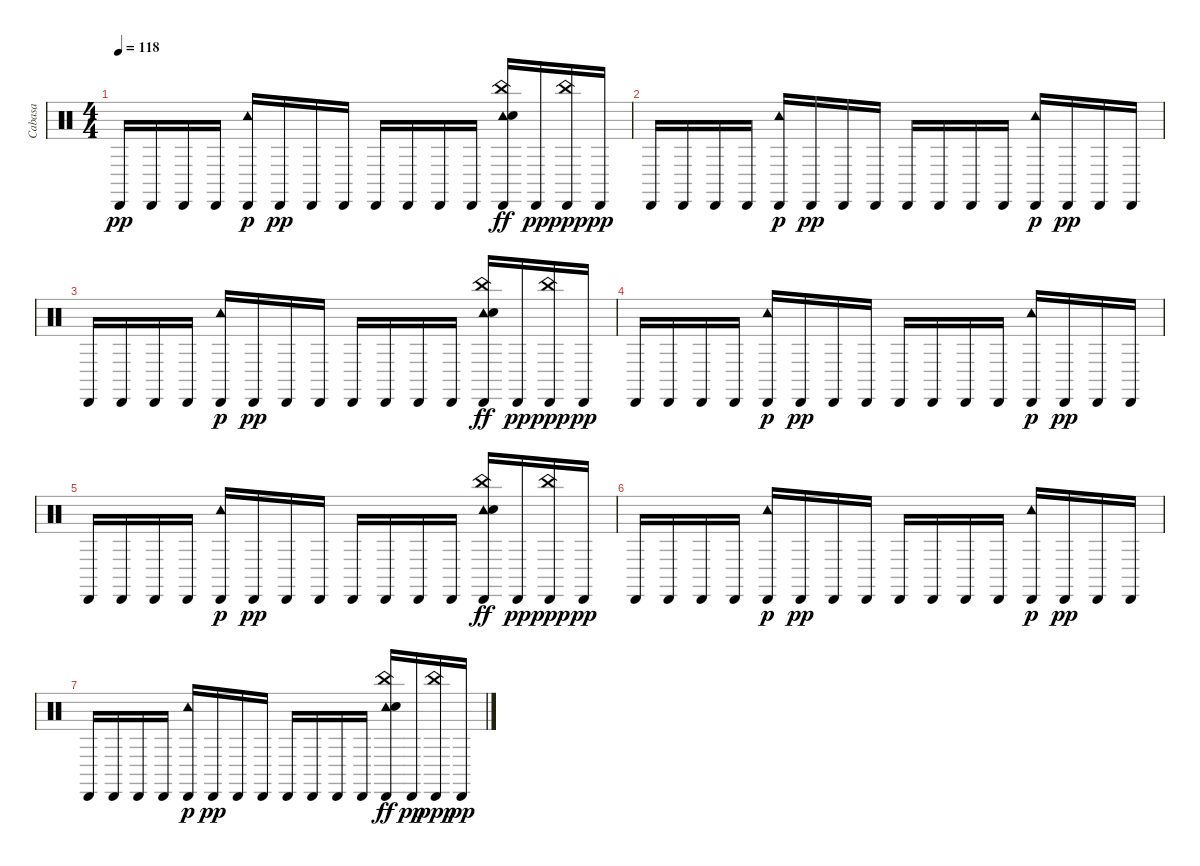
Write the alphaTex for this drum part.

\track ("Cabasa" "Cabasa") {instrument percussion}
\staff {score}
\articulation defaults
\ts (4 4)
\tempo 118
\clef neutral
\ks c "Cabasa (hit)".16{dy pp} "Cabasa (hit)".16 "Cabasa (hit)".16 "Cabasa (hit)".16
("Cabasa (hit)" "Tambourine (hit)").16{dy p} "Cabasa (hit)".16{dy pp} "Cabasa (hit)".16 "Cabasa (hit)".16 "Cabasa (hit)".16 "Cabasa (hit)".16 "Cabasa (hit)".16 "Cabasa (hit)".16 ("Cabasa (hit)" "Tambourine (hit)" "Hand Clap (hit)" "China (hit)").16{dy ff} "Cabasa (hit)".16{dy pp} ("Cabasa (hit)" "China (hit)").16{dy ppp} "Cabasa (hit)".16{dy pp} |
"Cabasa (hit)".16 "Cabasa (hit)".16 "Cabasa (hit)".16 "Cabasa (hit)".16 ("Cabasa (hit)" "Tambourine (hit)").16{dy p} "Cabasa (hit)".16{dy pp} "Cabasa (hit)".16 "Cabasa (hit)".16 "Cabasa (hit)".16 "Cabasa (hit)".16 "Cabasa (hit)".16 "Cabasa (hit)".16 ("Cabasa (hit)" "Tambourine (hit)").16{dy p} "Cabasa (hit)".16{dy pp} "Cabasa (hit)".16 "Cabasa (hit)".16 |
"Cabasa (hit)".16 "Cabasa (hit)".16 "Cabasa (hit)".16 "Cabasa (hit)".16 ("Cabasa (hit)" "Tambourine (hit)").16{dy p} "Cabasa (hit)".16{dy pp} "Cabasa (hit)".16 "Cabasa (hit)".16 "Cabasa (hit)".16 "Cabasa (hit)".16 "Cabasa (hit)".16 "Cabasa (hit)".16 ("Cabasa (hit)" "Tambourine (hit)" "Hand Clap (hit)" "China (hit)").16{dy ff} "Cabasa (hit)".16{dy pp} ("Cabasa (hit)" "China (hit)").16{dy ppp} "Cabasa (hit)".16{dy pp} |
"Cabasa (hit)".16 "Cabasa (hit)".16 "Cabasa (hit)".16 "Cabasa (hit)".16 ("Cabasa (hit)" "Tambourine (hit)").16{dy p} "Cabasa (hit)".16{dy pp} "Cabasa (hit)".16 "Cabasa (hit)".16 "Cabasa (hit)".16 "Cabasa (hit)".16 "Cabasa (hit)".16 "Cabasa (hit)".16 ("Cabasa (hit)" "Tambourine (hit)").16{dy p} "Cabasa (hit)".16{dy pp} "Cabasa (hit)".16 "Cabasa (hit)".16 |
"Cabasa (hit)".16 "Cabasa (hit)".16 "Cabasa (hit)".16 "Cabasa (hit)".16 ("Cabasa (hit)" "Tambourine (hit)").16{dy p} "Cabasa (hit)".16{dy pp} "Cabasa (hit)".16 "Cabasa (hit)".16 "Cabasa (hit)".16 "Cabasa (hit)".16 "Cabasa (hit)".16 "Cabasa (hit)".16 ("Cabasa (hit)" "Tambourine (hit)" "Hand Clap (hit)" "China (hit)").16{dy ff} "Cabasa (hit)".16{dy pp} ("Cabasa (hit)" "China (hit)").16{dy ppp} "Cabasa (hit)".16{dy pp} |
"Cabasa (hit)".16 "Cabasa (hit)".16 "Cabasa (hit)".16 "Cabasa (hit)".16 ("Cabasa (hit)" "Tambourine (hit)").16{dy p} "Cabasa (hit)".16{dy pp} "Cabasa (hit)".16 "Cabasa (hit)".16 "Cabasa (hit)".16 "Cabasa (hit)".16 "Cabasa (hit)".16 "Cabasa (hit)".16 ("Cabasa (hit)" "Tambourine (hit)").16{dy p} "Cabasa (hit)".16{dy pp} "Cabasa (hit)".16 "Cabasa (hit)".16 |
"Cabasa (hit)".16 "Cabasa (hit)".16 "Cabasa (hit)".16 "Cabasa (hit)".16 ("Cabasa (hit)" "Tambourine (hit)").16{dy p} "Cabasa (hit)".16{dy pp} "Cabasa (hit)".16 "Cabasa (hit)".16 "Cabasa (hit)".16 "Cabasa (hit)".16 "Cabasa (hit)".16 "Cabasa (hit)".16 ("Cabasa (hit)" "Tambourine (hit)" "Hand Clap (hit)" "China (hit)").16{dy ff} "Cabasa (hit)".16{dy pp} ("Cabasa (hit)" "China (hit)").16{dy ppp} "Cabasa (hit)".16{dy pp}
